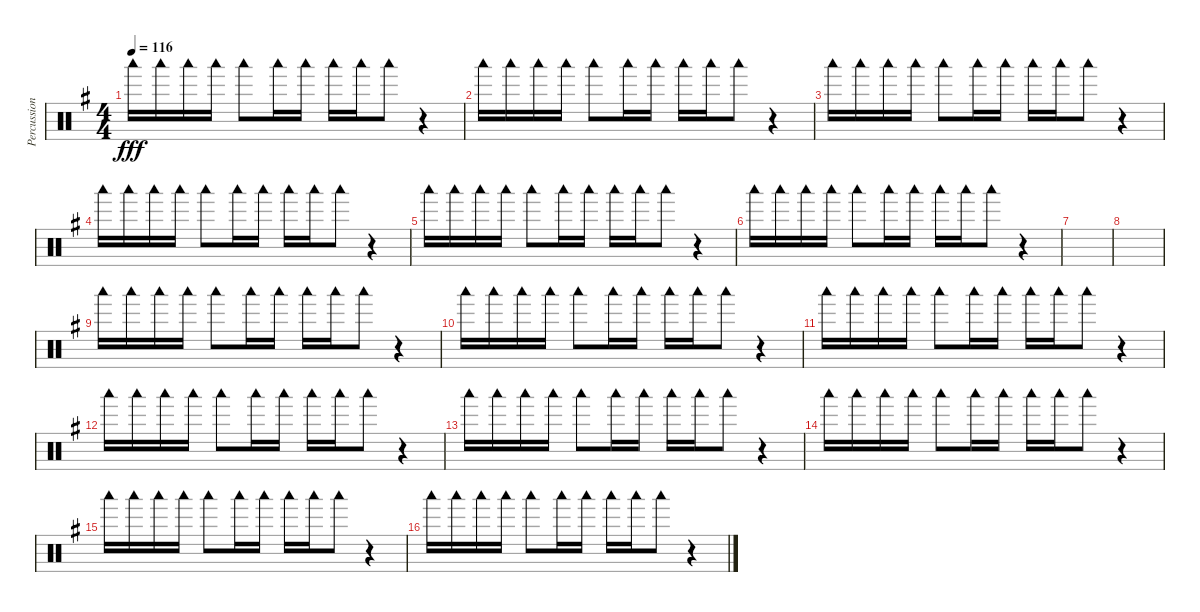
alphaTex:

\track ("Percussion" "Percussion") {instrument percussion}
\staff {score}
\articulation defaults
\ts (4 4)
\tempo 116
\clef neutral
\ks g "Woodblock low (hit)".16{dy fff} "Woodblock low (hit)".16 "Woodblock low (hit)".16 "Woodblock low (hit)".16 "Woodblock low (hit)".8 "Woodblock low (hit)".16 "Woodblock low (hit)".16 "Woodblock low (hit)".16 "Woodblock low (hit)".16 "Woodblock low (hit)".8
r.4 |
"Woodblock low (hit)".16 "Woodblock low (hit)".16 "Woodblock low (hit)".16 "Woodblock low (hit)".16 "Woodblock low (hit)".8 "Woodblock low (hit)".16 "Woodblock low (hit)".16 "Woodblock low (hit)".16 "Woodblock low (hit)".16 "Woodblock low (hit)".8 r.4 |
"Woodblock low (hit)".16 "Woodblock low (hit)".16 "Woodblock low (hit)".16 "Woodblock low (hit)".16 "Woodblock low (hit)".8 "Woodblock low (hit)".16 "Woodblock low (hit)".16 "Woodblock low (hit)".16 "Woodblock low (hit)".16 "Woodblock low (hit)".8 r.4 |
"Woodblock low (hit)".16 "Woodblock low (hit)".16 "Woodblock low (hit)".16 "Woodblock low (hit)".16 "Woodblock low (hit)".8 "Woodblock low (hit)".16 "Woodblock low (hit)".16 "Woodblock low (hit)".16 "Woodblock low (hit)".16 "Woodblock low (hit)".8 r.4 |
"Woodblock low (hit)".16 "Woodblock low (hit)".16 "Woodblock low (hit)".16 "Woodblock low (hit)".16 "Woodblock low (hit)".8 "Woodblock low (hit)".16 "Woodblock low (hit)".16 "Woodblock low (hit)".16 "Woodblock low (hit)".16 "Woodblock low (hit)".8 r.4 |
"Woodblock low (hit)".16 "Woodblock low (hit)".16 "Woodblock low (hit)".16 "Woodblock low (hit)".16 "Woodblock low (hit)".8 "Woodblock low (hit)".16 "Woodblock low (hit)".16 "Woodblock low (hit)".16 "Woodblock low (hit)".16 "Woodblock low (hit)".8 r.4 |
|
|
"Woodblock low (hit)".16 "Woodblock low (hit)".16 "Woodblock low (hit)".16 "Woodblock low (hit)".16 "Woodblock low (hit)".8 "Woodblock low (hit)".16 "Woodblock low (hit)".16 "Woodblock low (hit)".16 "Woodblock low (hit)".16 "Woodblock low (hit)".8 r.4 |
"Woodblock low (hit)".16 "Woodblock low (hit)".16 "Woodblock low (hit)".16 "Woodblock low (hit)".16 "Woodblock low (hit)".8 "Woodblock low (hit)".16 "Woodblock low (hit)".16 "Woodblock low (hit)".16 "Woodblock low (hit)".16 "Woodblock low (hit)".8 r.4 |
"Woodblock low (hit)".16 "Woodblock low (hit)".16 "Woodblock low (hit)".16 "Woodblock low (hit)".16 "Woodblock low (hit)".8 "Woodblock low (hit)".16 "Woodblock low (hit)".16 "Woodblock low (hit)".16 "Woodblock low (hit)".16 "Woodblock low (hit)".8 r.4 |
"Woodblock low (hit)".16 "Woodblock low (hit)".16 "Woodblock low (hit)".16 "Woodblock low (hit)".16 "Woodblock low (hit)".8 "Woodblock low (hit)".16 "Woodblock low (hit)".16 "Woodblock low (hit)".16 "Woodblock low (hit)".16 "Woodblock low (hit)".8 r.4 |
"Woodblock low (hit)".16 "Woodblock low (hit)".16 "Woodblock low (hit)".16 "Woodblock low (hit)".16 "Woodblock low (hit)".8 "Woodblock low (hit)".16 "Woodblock low (hit)".16 "Woodblock low (hit)".16 "Woodblock low (hit)".16 "Woodblock low (hit)".8 r.4 |
"Woodblock low (hit)".16 "Woodblock low (hit)".16 "Woodblock low (hit)".16 "Woodblock low (hit)".16 "Woodblock low (hit)".8 "Woodblock low (hit)".16 "Woodblock low (hit)".16 "Woodblock low (hit)".16 "Woodblock low (hit)".16 "Woodblock low (hit)".8 r.4 |
"Woodblock low (hit)".16 "Woodblock low (hit)".16 "Woodblock low (hit)".16 "Woodblock low (hit)".16 "Woodblock low (hit)".8 "Woodblock low (hit)".16 "Woodblock low (hit)".16 "Woodblock low (hit)".16 "Woodblock low (hit)".16 "Woodblock low (hit)".8 r.4 |
"Woodblock low (hit)".16 "Woodblock low (hit)".16 "Woodblock low (hit)".16 "Woodblock low (hit)".16 "Woodblock low (hit)".8 "Woodblock low (hit)".16 "Woodblock low (hit)".16 "Woodblock low (hit)".16 "Woodblock low (hit)".16 "Woodblock low (hit)".8 r.4
